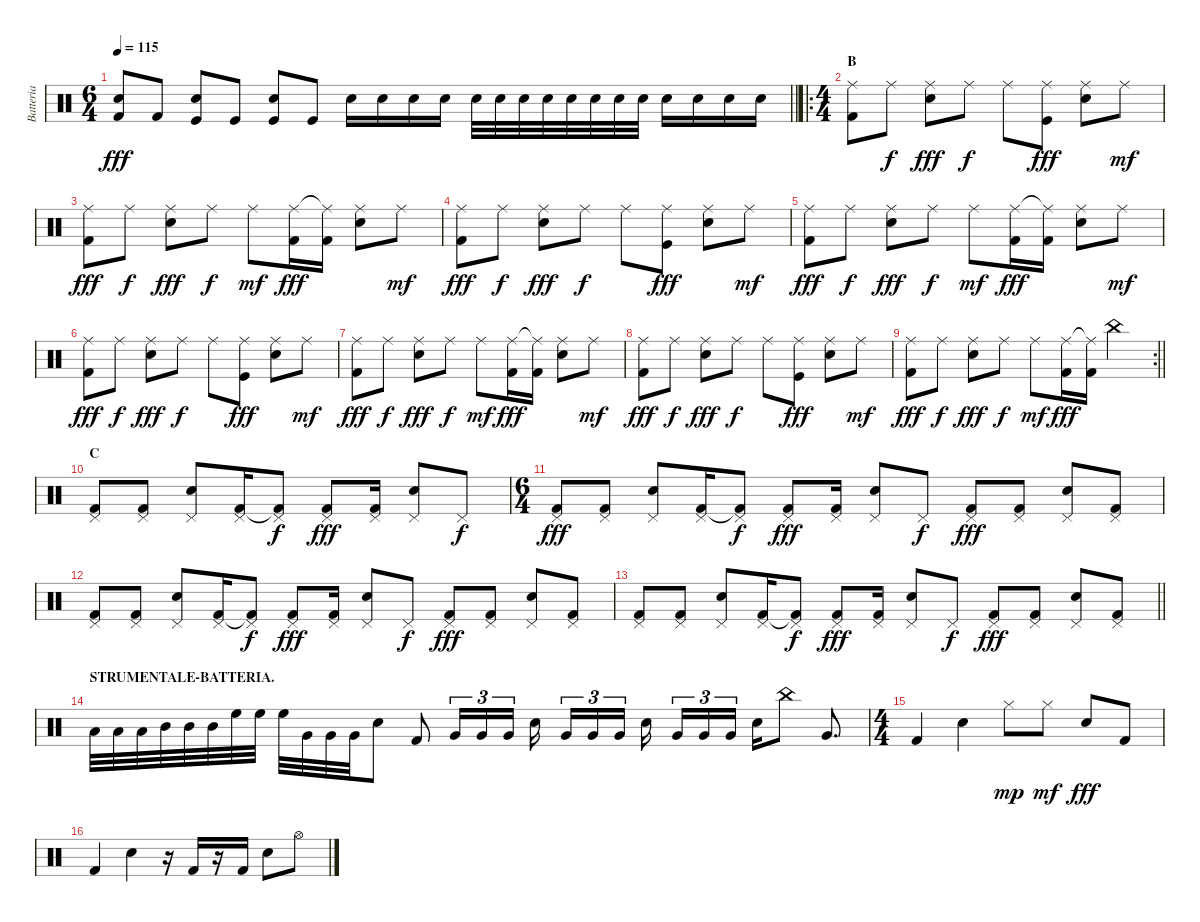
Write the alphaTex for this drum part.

\track ("Batteria" "Batteria") {instrument percussion}
\staff {score}
\articulation defaults
\ts (6 4)
\tempo 115
\clef neutral
\barLineRight lightlight
\ks c
("Snare (hit) 2" "Kick (hit) 2").8{dy fff} "Kick (hit) 2".8 ("Kick (hit)" "Snare (hit) 2").8 "Kick (hit)".8 ("Snare (hit) 2" "Kick (hit)").8 "Kick (hit)".8 "Snare (hit) 2".16 "Snare (hit) 2".16 "Snare (hit) 2".16 "Snare (hit) 2".16 "Snare (hit) 2".32 "Snare (hit) 2".32 "Snare (hit) 2".32 "Snare (hit) 2".32 "Snare (hit) 2".32 "Snare (hit) 2".32 "Snare (hit) 2".32 "Snare (hit) 2".32 "Snare (hit) 2".16 "Snare (hit) 2".16 "Snare (hit) 2".16 "Snare (hit) 2".16 |
\ro
\ts (4 4)
\section ("" "B")
("Ride (middle)" "Kick (hit) 2").8 "Ride (middle)".8{dy f} ("Ride (middle)" "Snare (hit) 2").8{dy fff} "Ride (middle)".8{dy f} "Ride (middle)".8 ("Ride (middle)" "Kick (hit)").8{dy fff} ("Ride (middle)" "Snare (hit) 2").8 "Ride (middle)".8{dy mf} |
("Ride (middle)" "Kick (hit) 2").8{dy fff} "Ride (middle)".8{dy f} ("Ride (middle)" "Snare (hit) 2").8{dy fff} "Ride (middle)".8{dy f} "Ride (middle)".8{dy mf} ("Ride (middle)" "Kick (hit) 2").16{dy fff} ("Ride (middle)"{t} "Kick (hit) 2").16 ("Ride (middle)" "Snare (hit) 2").8 "Ride (middle)".8{dy mf} |
("Ride (middle)" "Kick (hit) 2").8{dy fff} "Ride (middle)".8{dy f} ("Ride (middle)" "Snare (hit) 2").8{dy fff} "Ride (middle)".8{dy f} "Ride (middle)".8 ("Ride (middle)" "Kick (hit)").8{dy fff} ("Ride (middle)" "Snare (hit) 2").8 "Ride (middle)".8{dy mf} |
("Ride (middle)" "Kick (hit) 2").8{dy fff} "Ride (middle)".8{dy f} ("Ride (middle)" "Snare (hit) 2").8{dy fff} "Ride (middle)".8{dy f} "Ride (middle)".8{dy mf} ("Ride (middle)" "Kick (hit) 2").16{dy fff} ("Ride (middle)"{t} "Kick (hit) 2").16 ("Ride (middle)" "Snare (hit) 2").8 "Ride (middle)".8{dy mf} |
("Ride (middle)" "Kick (hit) 2").8{dy fff} "Ride (middle)".8{dy f} ("Ride (middle)" "Snare (hit) 2").8{dy fff} "Ride (middle)".8{dy f} "Ride (middle)".8 ("Ride (middle)" "Kick (hit)").8{dy fff} ("Ride (middle)" "Snare (hit) 2").8 "Ride (middle)".8{dy mf} |
("Ride (middle)" "Kick (hit) 2").8{dy fff} "Ride (middle)".8{dy f} ("Ride (middle)" "Snare (hit) 2").8{dy fff} "Ride (middle)".8{dy f} "Ride (middle)".8{dy mf} ("Ride (middle)" "Kick (hit) 2").16{dy fff} ("Ride (middle)"{t} "Kick (hit) 2").16 ("Ride (middle)" "Snare (hit) 2").8 "Ride (middle)".8{dy mf} |
("Ride (middle)" "Kick (hit) 2").8{dy fff} "Ride (middle)".8{dy f} ("Ride (middle)" "Snare (hit) 2").8{dy fff} "Ride (middle)".8{dy f} "Ride (middle)".8 ("Ride (middle)" "Kick (hit)").8{dy fff} ("Ride (middle)" "Snare (hit) 2").8 "Ride (middle)".8{dy mf} |
\rc 2
\barLineRight lightlight
("Ride (middle)" "Kick (hit) 2").8{dy fff} "Ride (middle)".8{dy f} ("Ride (middle)" "Snare (hit) 2").8{dy fff} "Ride (middle)".8{dy f} "Ride (middle)".8{dy mf} ("Ride (middle)" "Kick (hit) 2").16{dy fff} ("Ride (middle)"{t} "Kick (hit) 2").16 "China (hit)".4 |
\section ("" "C")
("Kick (hit) 2" "Pedal Hi-Hat (hit)").8 ("Kick (hit) 2" "Pedal Hi-Hat (hit)").8 ("Snare (hit) 2" "Pedal Hi-Hat (hit)").8 ("Kick (hit) 2" "Pedal Hi-Hat (hit)").16 ("Kick (hit) 2"{t} "Pedal Hi-Hat (hit)").8{dy f} ("Kick (hit) 2" "Pedal Hi-Hat (hit)").8{dy fff} ("Kick (hit) 2" "Pedal Hi-Hat (hit)").16 ("Snare (hit) 2" "Pedal Hi-Hat (hit)").8 "Pedal Hi-Hat (hit)".8{dy f} |
\ts (6 4)
("Kick (hit) 2" "Pedal Hi-Hat (hit)").8{dy fff} ("Kick (hit) 2" "Pedal Hi-Hat (hit)").8 ("Snare (hit) 2" "Pedal Hi-Hat (hit)").8 ("Kick (hit) 2" "Pedal Hi-Hat (hit)").16 ("Kick (hit) 2"{t} "Pedal Hi-Hat (hit)").8{dy f} ("Kick (hit) 2" "Pedal Hi-Hat (hit)").8{dy fff} ("Kick (hit) 2" "Pedal Hi-Hat (hit)").16 ("Snare (hit) 2" "Pedal Hi-Hat (hit)").8 "Pedal Hi-Hat (hit)".8{dy f} ("Kick (hit) 2" "Pedal Hi-Hat (hit)").8{dy fff} ("Kick (hit) 2" "Pedal Hi-Hat (hit)").8 ("Snare (hit) 2" "Pedal Hi-Hat (hit)").8 ("Kick (hit) 2" "Pedal Hi-Hat (hit)").8 |
("Kick (hit) 2" "Pedal Hi-Hat (hit)").8 ("Kick (hit) 2" "Pedal Hi-Hat (hit)").8 ("Snare (hit) 2" "Pedal Hi-Hat (hit)").8 ("Kick (hit) 2" "Pedal Hi-Hat (hit)").16 ("Kick (hit) 2"{t} "Pedal Hi-Hat (hit)").8{dy f} ("Kick (hit) 2" "Pedal Hi-Hat (hit)").8{dy fff} ("Kick (hit) 2" "Pedal Hi-Hat (hit)").16 ("Snare (hit) 2" "Pedal Hi-Hat (hit)").8 "Pedal Hi-Hat (hit)".8{dy f} ("Kick (hit) 2" "Pedal Hi-Hat (hit)").8{dy fff} ("Kick (hit) 2" "Pedal Hi-Hat (hit)").8 ("Snare (hit) 2" "Pedal Hi-Hat (hit)").8 ("Kick (hit) 2" "Pedal Hi-Hat (hit)").8 |
\barLineRight lightlight
("Kick (hit) 2" "Pedal Hi-Hat (hit)").8 ("Kick (hit) 2" "Pedal Hi-Hat (hit)").8 ("Snare (hit) 2" "Pedal Hi-Hat (hit)").8 ("Kick (hit) 2" "Pedal Hi-Hat (hit)").16 ("Kick (hit) 2"{t} "Pedal Hi-Hat (hit)").8{dy f} ("Kick (hit) 2" "Pedal Hi-Hat (hit)").8{dy fff} ("Kick (hit) 2" "Pedal Hi-Hat (hit)").16 ("Snare (hit) 2" "Pedal Hi-Hat (hit)").8 "Pedal Hi-Hat (hit)".8{dy f} ("Kick (hit) 2" "Pedal Hi-Hat (hit)").8{dy fff} ("Kick (hit) 2" "Pedal Hi-Hat (hit)").8 ("Snare (hit) 2" "Pedal Hi-Hat (hit)").8 ("Kick (hit) 2" "Pedal Hi-Hat (hit)").8 |
\section ("" "STRUMENTALE-BATTERIA.")
"Low Tom (hit)".32 "Low Tom (hit)".32 "Low Tom (hit)".32 "Mid Tom (hit)".32 "Mid Tom (hit)".32 "Mid Tom (hit)".32 "High Floor Tom (hit)".32 "High Floor Tom (hit)".32 "High Floor Tom (hit)".32 "Very Low Tom (hit)".32 "Very Low Tom (hit)".32 "Very Low Tom (hit)".32 "Snare (hit) 2".8 "Kick (hit) 2".8 "Very Low Tom (hit)".16{tu (3 2)} "Very Low Tom (hit)".16{tu (3 2)} "Very Low Tom (hit)".16{tu (3 2)} "Snare (hit) 2".16{beam splitsecondary} "Very Low Tom (hit)".16{tu (3 2)} "Very Low Tom (hit)".16{tu (3 2)} "Very Low Tom (hit)".16{tu (3 2) beam splitsecondary} "Snare (hit) 2".16{beam splitsecondary} "Very Low Tom (hit)".16{tu (3 2)} "Very Low Tom (hit)".16{tu (3 2)} "Very Low Tom (hit)".16{tu (3 2) beam splitsecondary} "Snare (hit) 2".16 "China (hit)".8 "Very Low Tom (hit)".8{d} |
\ts (4 4)
"Kick (hit) 2".4 "Snare (hit) 2".4 "Hi-Hat (closed)".8{dy mp} "Hi-Hat (closed)".8{dy mf} "Snare (hit) 2".8{dy fff} "Kick (hit) 2".8 |
"Kick (hit) 2".4 "Snare (hit) 2".4 r.16 "Kick (hit) 2".16 r.16 "Kick (hit) 2".16 "Snare (hit) 2".8 "Hi-Hat (open)".8
